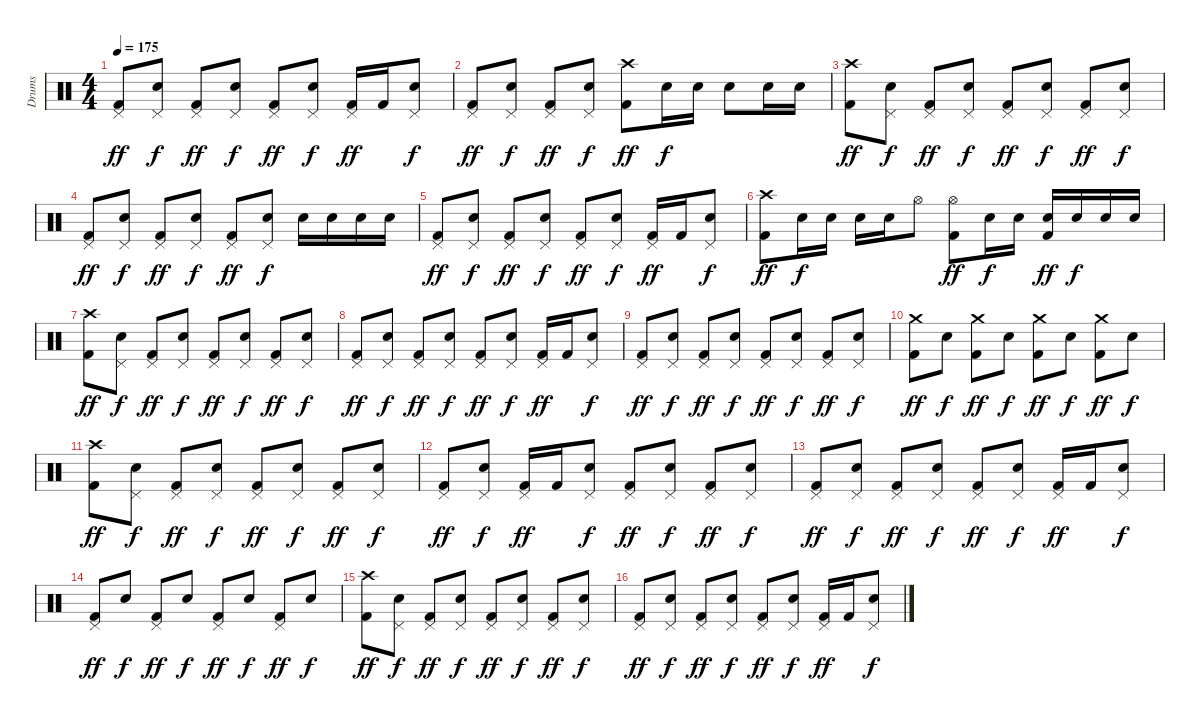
\track ("Drums" "Drums") {instrument percussion}
\staff {score}
\articulation defaults
\ts (4 4)
\tempo 175
\clef neutral
\ks c
("Pedal Hi-Hat (hit)" "Kick (hit) 2").8{dy ff} ("Pedal Hi-Hat (hit)" "Electric Snare (hit)").8{dy f} ("Pedal Hi-Hat (hit)" "Kick (hit) 2").8{dy ff} ("Pedal Hi-Hat (hit)" "Electric Snare (hit)").8{dy f} ("Pedal Hi-Hat (hit)" "Kick (hit) 2").8{dy ff} ("Pedal Hi-Hat (hit)" "Electric Snare (hit)").8{dy f} ("Pedal Hi-Hat (hit)" "Kick (hit) 2").16{dy ff} "Kick (hit) 2".16 ("Pedal Hi-Hat (hit)" "Electric Snare (hit)").8{dy f} |
("Pedal Hi-Hat (hit)" "Kick (hit) 2").8{dy ff} ("Pedal Hi-Hat (hit)" "Electric Snare (hit)").8{dy f} ("Pedal Hi-Hat (hit)" "Kick (hit) 2").8{dy ff} ("Pedal Hi-Hat (hit)" "Electric Snare (hit)").8{dy f} ("Crash high (hit)" "Kick (hit) 2").8{dy ff} "Electric Snare (hit)".16{dy f} "Electric Snare (hit)".16 "Electric Snare (hit)".8 "Electric Snare (hit)".16 "Electric Snare (hit)".16 |
("Crash high (hit)" "Kick (hit) 2").8{dy ff} ("Pedal Hi-Hat (hit)" "Electric Snare (hit)").8{dy f} ("Pedal Hi-Hat (hit)" "Kick (hit) 2").8{dy ff} ("Pedal Hi-Hat (hit)" "Electric Snare (hit)").8{dy f} ("Pedal Hi-Hat (hit)" "Kick (hit) 2").8{dy ff} ("Pedal Hi-Hat (hit)" "Electric Snare (hit)").8{dy f} ("Pedal Hi-Hat (hit)" "Kick (hit) 2").8{dy ff} ("Pedal Hi-Hat (hit)" "Electric Snare (hit)").8{dy f} |
("Pedal Hi-Hat (hit)" "Kick (hit) 2").8{dy ff} ("Pedal Hi-Hat (hit)" "Electric Snare (hit)").8{dy f} ("Pedal Hi-Hat (hit)" "Kick (hit) 2").8{dy ff} ("Pedal Hi-Hat (hit)" "Electric Snare (hit)").8{dy f} ("Pedal Hi-Hat (hit)" "Kick (hit) 2").8{dy ff} ("Pedal Hi-Hat (hit)" "Electric Snare (hit)").8{dy f} "Electric Snare (hit)".16 "Electric Snare (hit)".16 "Electric Snare (hit)".16 "Electric Snare (hit)".16 |
("Pedal Hi-Hat (hit)" "Kick (hit) 2").8{dy ff} ("Pedal Hi-Hat (hit)" "Electric Snare (hit)").8{dy f} ("Pedal Hi-Hat (hit)" "Kick (hit) 2").8{dy ff} ("Pedal Hi-Hat (hit)" "Electric Snare (hit)").8{dy f} ("Pedal Hi-Hat (hit)" "Kick (hit) 2").8{dy ff} ("Pedal Hi-Hat (hit)" "Electric Snare (hit)").8{dy f} ("Pedal Hi-Hat (hit)" "Kick (hit) 2").16{dy ff} "Kick (hit) 2".16 ("Pedal Hi-Hat (hit)" "Electric Snare (hit)").8{dy f} |
("Crash high (hit)" "Kick (hit) 2").8{dy ff} "Electric Snare (hit)".16{dy f} "Electric Snare (hit)".16 "Electric Snare (hit)".16 "Electric Snare (hit)".16 "Hi-Hat (open)".8 ("Hi-Hat (open)" "Kick (hit) 2").8{dy ff} "Electric Snare (hit)".16{dy f} "Electric Snare (hit)".16 ("Electric Snare (hit)" "Kick (hit) 2").16{dy ff} "Electric Snare (hit)".16{dy f} "Electric Snare (hit)".16 "Electric Snare (hit)".16 |
("Crash high (hit)" "Kick (hit) 2").8{dy ff volume 12} ("Pedal Hi-Hat (hit)" "Electric Snare (hit)").8{dy f} ("Pedal Hi-Hat (hit)" "Kick (hit) 2").8{dy ff} ("Pedal Hi-Hat (hit)" "Electric Snare (hit)").8{dy f} ("Pedal Hi-Hat (hit)" "Kick (hit) 2").8{dy ff} ("Pedal Hi-Hat (hit)" "Electric Snare (hit)").8{dy f} ("Pedal Hi-Hat (hit)" "Kick (hit) 2").8{dy ff} ("Pedal Hi-Hat (hit)" "Electric Snare (hit)").8{dy f} |
("Pedal Hi-Hat (hit)" "Kick (hit) 2").8{dy ff} ("Pedal Hi-Hat (hit)" "Electric Snare (hit)").8{dy f} ("Pedal Hi-Hat (hit)" "Kick (hit) 2").8{dy ff} ("Pedal Hi-Hat (hit)" "Electric Snare (hit)").8{dy f} ("Pedal Hi-Hat (hit)" "Kick (hit) 2").8{dy ff} ("Pedal Hi-Hat (hit)" "Electric Snare (hit)").8{dy f} ("Pedal Hi-Hat (hit)" "Kick (hit) 2").16{dy ff} "Kick (hit) 2".16 ("Pedal Hi-Hat (hit)" "Electric Snare (hit)").8{dy f} |
("Pedal Hi-Hat (hit)" "Kick (hit) 2").8{dy ff} ("Pedal Hi-Hat (hit)" "Electric Snare (hit)").8{dy f} ("Pedal Hi-Hat (hit)" "Kick (hit) 2").8{dy ff} ("Pedal Hi-Hat (hit)" "Electric Snare (hit)").8{dy f} ("Pedal Hi-Hat (hit)" "Kick (hit) 2").8{dy ff} ("Pedal Hi-Hat (hit)" "Electric Snare (hit)").8{dy f} ("Pedal Hi-Hat (hit)" "Kick (hit) 2").8{dy ff} ("Pedal Hi-Hat (hit)" "Electric Snare (hit)").8{dy f} |
("Crash medium (hit)" "Kick (hit) 2").8{dy ff} "Electric Snare (hit)".8{dy f} ("Crash medium (hit)" "Kick (hit) 2").8{dy ff} "Electric Snare (hit)".8{dy f} ("Crash medium (hit)" "Kick (hit) 2").8{dy ff} "Electric Snare (hit)".8{dy f} ("Crash medium (hit)" "Kick (hit) 2").8{dy ff} "Electric Snare (hit)".8{dy f} |
("Crash high (hit)" "Kick (hit) 2").8{dy ff volume 8} ("Pedal Hi-Hat (hit)" "Electric Snare (hit)").8{dy f} ("Pedal Hi-Hat (hit)" "Kick (hit) 2").8{dy ff} ("Pedal Hi-Hat (hit)" "Electric Snare (hit)").8{dy f} ("Pedal Hi-Hat (hit)" "Kick (hit) 2").8{dy ff} ("Pedal Hi-Hat (hit)" "Electric Snare (hit)").8{dy f} ("Pedal Hi-Hat (hit)" "Kick (hit) 2").8{dy ff} ("Pedal Hi-Hat (hit)" "Electric Snare (hit)").8{dy f} |
("Pedal Hi-Hat (hit)" "Kick (hit) 2").8{dy ff} ("Pedal Hi-Hat (hit)" "Electric Snare (hit)").8{dy f} ("Pedal Hi-Hat (hit)" "Kick (hit) 2").16{dy ff} "Kick (hit) 2".16 ("Pedal Hi-Hat (hit)" "Electric Snare (hit)").8{dy f} ("Pedal Hi-Hat (hit)" "Kick (hit) 2").8{dy ff} ("Pedal Hi-Hat (hit)" "Electric Snare (hit)").8{dy f} ("Pedal Hi-Hat (hit)" "Kick (hit) 2").8{dy ff} ("Pedal Hi-Hat (hit)" "Electric Snare (hit)").8{dy f} |
("Pedal Hi-Hat (hit)" "Kick (hit) 2").8{dy ff} ("Pedal Hi-Hat (hit)" "Electric Snare (hit)").8{dy f} ("Pedal Hi-Hat (hit)" "Kick (hit) 2").8{dy ff} ("Pedal Hi-Hat (hit)" "Electric Snare (hit)").8{dy f} ("Pedal Hi-Hat (hit)" "Kick (hit) 2").8{dy ff} ("Pedal Hi-Hat (hit)" "Electric Snare (hit)").8{dy f} ("Pedal Hi-Hat (hit)" "Kick (hit) 2").16{dy ff} "Kick (hit) 2".16 ("Pedal Hi-Hat (hit)" "Electric Snare (hit)").8{dy f} |
("Pedal Hi-Hat (hit)" "Kick (hit) 2").8{dy ff} "Electric Snare (hit)".8{dy f} ("Pedal Hi-Hat (hit)" "Kick (hit) 2").8{dy ff} "Electric Snare (hit)".8{dy f} ("Pedal Hi-Hat (hit)" "Kick (hit) 2").8{dy ff} "Electric Snare (hit)".8{dy f} ("Pedal Hi-Hat (hit)" "Kick (hit) 2").8{dy ff} "Electric Snare (hit)".8{dy f} |
("Crash high (hit)" "Kick (hit) 2").8{dy ff volume 4} ("Pedal Hi-Hat (hit)" "Electric Snare (hit)").8{dy f} ("Pedal Hi-Hat (hit)" "Kick (hit) 2").8{dy ff} ("Pedal Hi-Hat (hit)" "Electric Snare (hit)").8{dy f} ("Pedal Hi-Hat (hit)" "Kick (hit) 2").8{dy ff} ("Pedal Hi-Hat (hit)" "Electric Snare (hit)").8{dy f} ("Pedal Hi-Hat (hit)" "Kick (hit) 2").8{dy ff} ("Pedal Hi-Hat (hit)" "Electric Snare (hit)").8{dy f} |
("Pedal Hi-Hat (hit)" "Kick (hit) 2").8{dy ff} ("Pedal Hi-Hat (hit)" "Electric Snare (hit)").8{dy f} ("Pedal Hi-Hat (hit)" "Kick (hit) 2").8{dy ff} ("Pedal Hi-Hat (hit)" "Electric Snare (hit)").8{dy f} ("Pedal Hi-Hat (hit)" "Kick (hit) 2").8{dy ff} ("Pedal Hi-Hat (hit)" "Electric Snare (hit)").8{dy f} ("Pedal Hi-Hat (hit)" "Kick (hit) 2").16{dy ff} "Kick (hit) 2".16 ("Pedal Hi-Hat (hit)" "Electric Snare (hit)").8{dy f}
